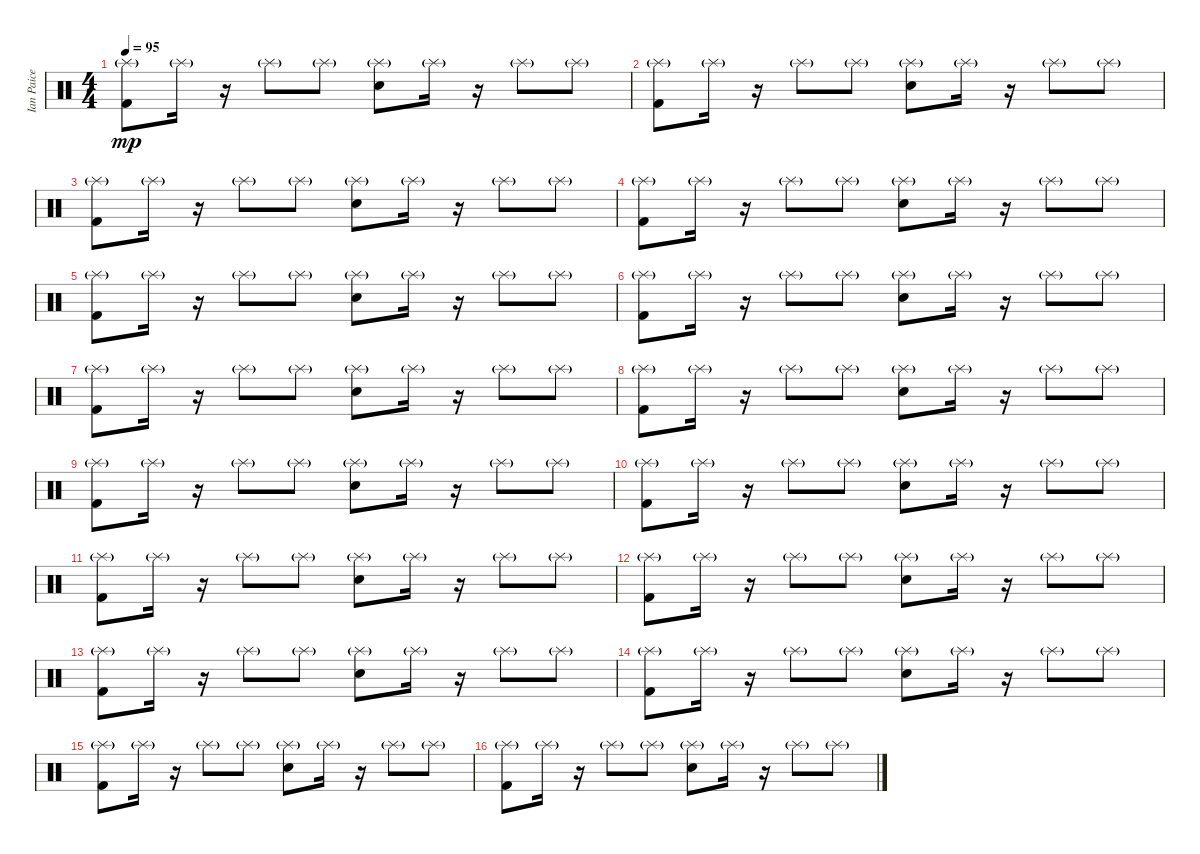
\track ("Ian Paice" "Ian Paice") {instrument percussion}
\staff {score}
\articulation defaults
\ts (4 4)
\tempo 95
\clef neutral
\ks c
("Splash (hit)"{g} "Kick (hit) 2").8{dy mp} "Splash (hit)"{g}.16 r.16 "Splash (hit)"{g}.8 "Splash (hit)"{g}.8 ("Splash (hit)"{g} "Snare (hit) 2").8 "Splash (hit)"{g}.16 r.16 "Splash (hit)"{g}.8 "Splash (hit)"{g}.8 |
("Splash (hit)"{g} "Kick (hit) 2").8 "Splash (hit)"{g}.16 r.16 "Splash (hit)"{g}.8 "Splash (hit)"{g}.8 ("Splash (hit)"{g} "Snare (hit) 2").8 "Splash (hit)"{g}.16 r.16 "Splash (hit)"{g}.8 "Splash (hit)"{g}.8 |
("Splash (hit)"{g} "Kick (hit) 2").8 "Splash (hit)"{g}.16 r.16 "Splash (hit)"{g}.8 "Splash (hit)"{g}.8 ("Splash (hit)"{g} "Snare (hit) 2").8 "Splash (hit)"{g}.16 r.16 "Splash (hit)"{g}.8 "Splash (hit)"{g}.8 |
("Splash (hit)"{g} "Kick (hit) 2").8 "Splash (hit)"{g}.16 r.16 "Splash (hit)"{g}.8 "Splash (hit)"{g}.8 ("Splash (hit)"{g} "Snare (hit) 2").8 "Splash (hit)"{g}.16 r.16 "Splash (hit)"{g}.8 "Splash (hit)"{g}.8 |
("Splash (hit)"{g} "Kick (hit) 2").8 "Splash (hit)"{g}.16 r.16 "Splash (hit)"{g}.8 "Splash (hit)"{g}.8 ("Splash (hit)"{g} "Snare (hit) 2").8 "Splash (hit)"{g}.16 r.16 "Splash (hit)"{g}.8 "Splash (hit)"{g}.8 |
("Splash (hit)"{g} "Kick (hit) 2").8 "Splash (hit)"{g}.16 r.16 "Splash (hit)"{g}.8 "Splash (hit)"{g}.8 ("Splash (hit)"{g} "Snare (hit) 2").8 "Splash (hit)"{g}.16 r.16 "Splash (hit)"{g}.8 "Splash (hit)"{g}.8 |
("Splash (hit)"{g} "Kick (hit) 2").8 "Splash (hit)"{g}.16 r.16 "Splash (hit)"{g}.8 "Splash (hit)"{g}.8 ("Splash (hit)"{g} "Snare (hit) 2").8 "Splash (hit)"{g}.16 r.16 "Splash (hit)"{g}.8 "Splash (hit)"{g}.8 |
("Splash (hit)"{g} "Kick (hit) 2").8 "Splash (hit)"{g}.16 r.16 "Splash (hit)"{g}.8 "Splash (hit)"{g}.8 ("Splash (hit)"{g} "Snare (hit) 2").8 "Splash (hit)"{g}.16 r.16 "Splash (hit)"{g}.8 "Splash (hit)"{g}.8 |
("Splash (hit)"{g} "Kick (hit) 2").8 "Splash (hit)"{g}.16 r.16 "Splash (hit)"{g}.8 "Splash (hit)"{g}.8 ("Splash (hit)"{g} "Snare (hit) 2").8 "Splash (hit)"{g}.16 r.16 "Splash (hit)"{g}.8 "Splash (hit)"{g}.8 |
("Splash (hit)"{g} "Kick (hit) 2").8 "Splash (hit)"{g}.16 r.16 "Splash (hit)"{g}.8 "Splash (hit)"{g}.8 ("Splash (hit)"{g} "Snare (hit) 2").8 "Splash (hit)"{g}.16 r.16 "Splash (hit)"{g}.8 "Splash (hit)"{g}.8 |
("Splash (hit)"{g} "Kick (hit) 2").8 "Splash (hit)"{g}.16 r.16 "Splash (hit)"{g}.8 "Splash (hit)"{g}.8 ("Splash (hit)"{g} "Snare (hit) 2").8 "Splash (hit)"{g}.16 r.16 "Splash (hit)"{g}.8 "Splash (hit)"{g}.8 |
("Splash (hit)"{g} "Kick (hit) 2").8 "Splash (hit)"{g}.16 r.16 "Splash (hit)"{g}.8 "Splash (hit)"{g}.8 ("Splash (hit)"{g} "Snare (hit) 2").8 "Splash (hit)"{g}.16 r.16 "Splash (hit)"{g}.8 "Splash (hit)"{g}.8 |
("Splash (hit)"{g} "Kick (hit) 2").8 "Splash (hit)"{g}.16 r.16 "Splash (hit)"{g}.8 "Splash (hit)"{g}.8 ("Splash (hit)"{g} "Snare (hit) 2").8 "Splash (hit)"{g}.16 r.16 "Splash (hit)"{g}.8 "Splash (hit)"{g}.8 |
("Splash (hit)"{g} "Kick (hit) 2").8 "Splash (hit)"{g}.16 r.16 "Splash (hit)"{g}.8 "Splash (hit)"{g}.8 ("Splash (hit)"{g} "Snare (hit) 2").8 "Splash (hit)"{g}.16 r.16 "Splash (hit)"{g}.8 "Splash (hit)"{g}.8 |
("Splash (hit)"{g} "Kick (hit) 2").8 "Splash (hit)"{g}.16 r.16 "Splash (hit)"{g}.8 "Splash (hit)"{g}.8 ("Splash (hit)"{g} "Snare (hit) 2").8 "Splash (hit)"{g}.16 r.16 "Splash (hit)"{g}.8 "Splash (hit)"{g}.8 |
("Splash (hit)"{g} "Kick (hit) 2").8 "Splash (hit)"{g}.16 r.16 "Splash (hit)"{g}.8 "Splash (hit)"{g}.8 ("Splash (hit)"{g} "Snare (hit) 2").8 "Splash (hit)"{g}.16 r.16 "Splash (hit)"{g}.8 "Splash (hit)"{g}.8
